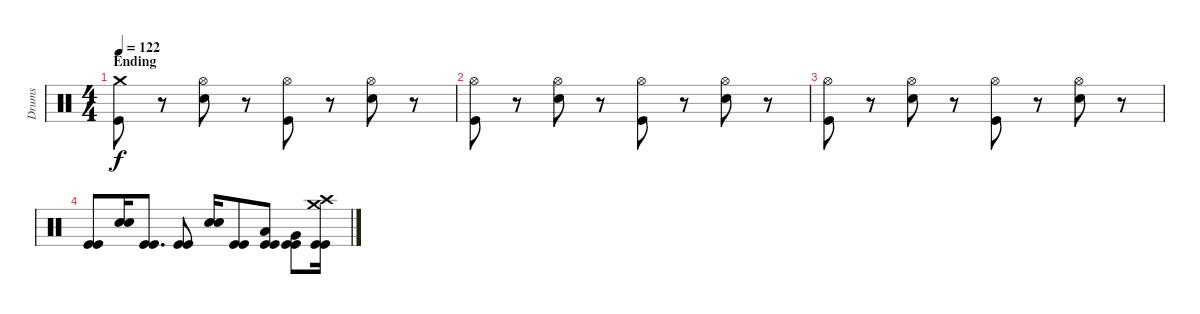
\track ("Drums" "Drums") {instrument percussion}
\staff {score}
\articulation defaults
\ts (4 4)
\section ("" "Ending")
\tempo 122
\clef neutral
\ks c
("Crash medium (hit)" "Kick (hit)").8{dy f} r.8 ("Hi-Hat (open)" "Electric Snare (hit)").8 r.8 ("Hi-Hat (open)" "Kick (hit)").8 r.8 ("Hi-Hat (open)" "Electric Snare (hit)").8 r.8 |
("Hi-Hat (open)" "Kick (hit)").8 r.8 ("Hi-Hat (open)" "Electric Snare (hit)").8 r.8 ("Hi-Hat (open)" "Kick (hit)").8 r.8 ("Hi-Hat (open)" "Electric Snare (hit)").8 r.8 |
("Hi-Hat (open)" "Kick (hit)").8 r.8 ("Hi-Hat (open)" "Electric Snare (hit)").8 r.8 ("Hi-Hat (open)" "Kick (hit)").8 r.8 ("Hi-Hat (open)" "Electric Snare (hit)").8 r.8 |
("Kick (hit)" "Kick (hit)").8 ("Electric Snare (hit)" "Electric Snare (hit)").16 ("Kick (hit)" "Kick (hit)").8{d} ("Kick (hit)" "Kick (hit)").8 ("Electric Snare (hit)" "Electric Snare (hit)").16 ("Kick (hit)" "Kick (hit)").8 ("Low Tom (hit)" "Kick (hit)" "Kick (hit)").8 ("Very Low Tom (hit)" "Kick (hit)" "Kick (hit)").8 ("Crash medium (hit)" "Crash high (hit)" "Kick (hit)" "Kick (hit)").16
